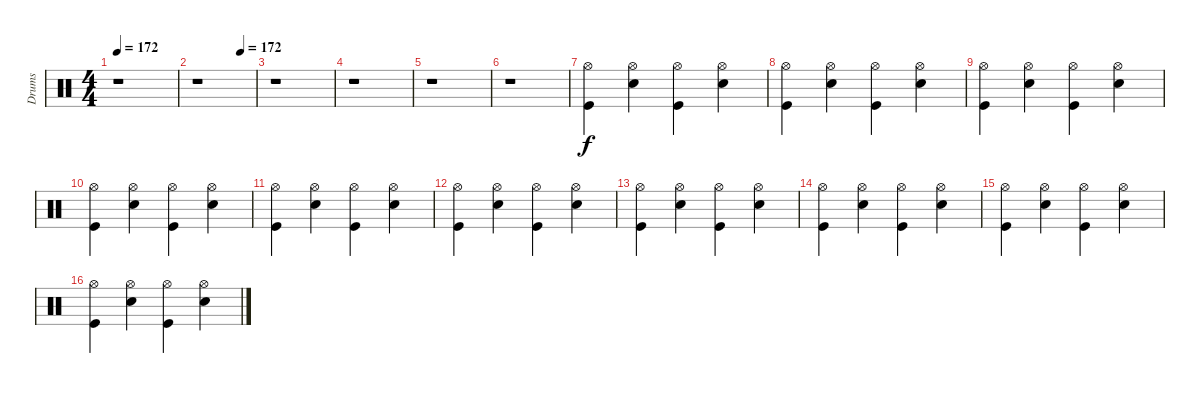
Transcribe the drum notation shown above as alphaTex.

\track ("Drums" "Drums") {instrument percussion}
\staff {score}
\articulation defaults
\ts (4 4)
\tempo 172
\tempo 120
\tempo 172
\clef neutral
\ks c
r.1{dy f} |
\tempo (172 0.75)
r.1 |
r.1 |
r.1 |
r.1 |
r.1 |
("Kick (hit)" "Hi-Hat (open)").4 ("Snare (hit) 2" "Hi-Hat (open)").4 ("Kick (hit)" "Hi-Hat (open)").4 ("Snare (hit) 2" "Hi-Hat (open)").4 |
("Kick (hit)" "Hi-Hat (open)").4 ("Snare (hit) 2" "Hi-Hat (open)").4 ("Kick (hit)" "Hi-Hat (open)").4 ("Snare (hit) 2" "Hi-Hat (open)").4 |
("Kick (hit)" "Hi-Hat (open)").4 ("Snare (hit) 2" "Hi-Hat (open)").4 ("Kick (hit)" "Hi-Hat (open)").4 ("Snare (hit) 2" "Hi-Hat (open)").4 |
("Kick (hit)" "Hi-Hat (open)").4 ("Snare (hit) 2" "Hi-Hat (open)").4 ("Kick (hit)" "Hi-Hat (open)").4 ("Snare (hit) 2" "Hi-Hat (open)").4 |
("Kick (hit)" "Hi-Hat (open)").4 ("Snare (hit) 2" "Hi-Hat (open)").4 ("Kick (hit)" "Hi-Hat (open)").4 ("Snare (hit) 2" "Hi-Hat (open)").4 |
("Kick (hit)" "Hi-Hat (open)").4 ("Snare (hit) 2" "Hi-Hat (open)").4 ("Kick (hit)" "Hi-Hat (open)").4 ("Snare (hit) 2" "Hi-Hat (open)").4 |
("Kick (hit)" "Hi-Hat (open)").4 ("Snare (hit) 2" "Hi-Hat (open)").4 ("Kick (hit)" "Hi-Hat (open)").4 ("Snare (hit) 2" "Hi-Hat (open)").4 |
("Kick (hit)" "Hi-Hat (open)").4 ("Snare (hit) 2" "Hi-Hat (open)").4 ("Kick (hit)" "Hi-Hat (open)").4 ("Snare (hit) 2" "Hi-Hat (open)").4 |
("Kick (hit)" "Hi-Hat (open)").4 ("Snare (hit) 2" "Hi-Hat (open)").4 ("Kick (hit)" "Hi-Hat (open)").4 ("Snare (hit) 2" "Hi-Hat (open)").4 |
("Kick (hit)" "Hi-Hat (open)").4 ("Snare (hit) 2" "Hi-Hat (open)").4 ("Kick (hit)" "Hi-Hat (open)").4 ("Snare (hit) 2" "Hi-Hat (open)").4
